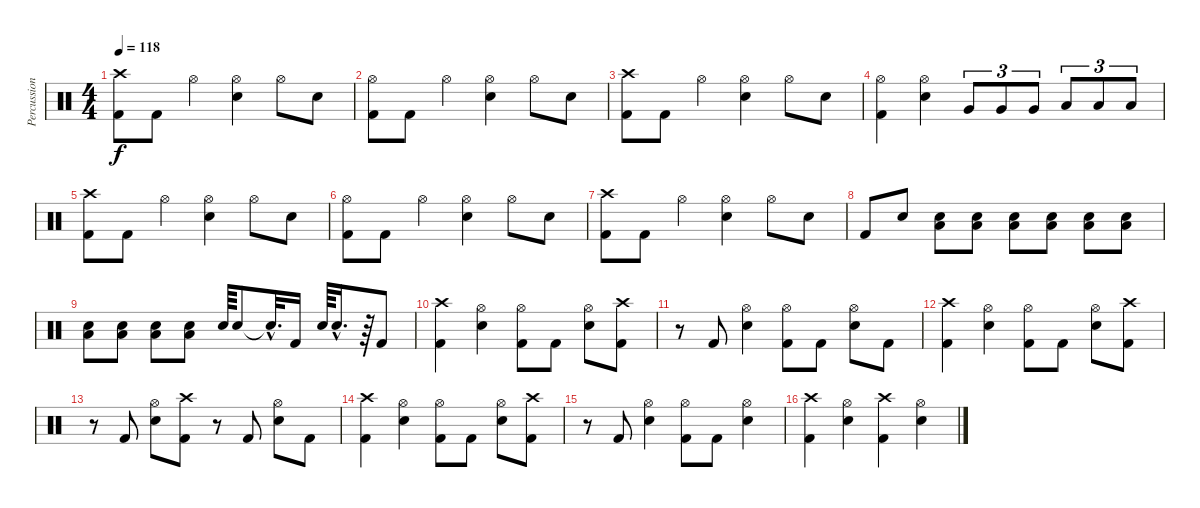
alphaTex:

\track ("Percussion" "Percussion") {instrument percussion}
\staff {score}
\articulation defaults
\ts (4 4)
\tempo 118
\clef neutral
\ks c
("Crash high (hit)" "Kick (hit) 2").8{dy f} "Kick (hit) 2".8 "Hi-Hat (open)".4 ("Hi-Hat (open)" "Snare (hit) 2").4 "Hi-Hat (open)".8 "Snare (hit) 2".8 |
("Hi-Hat (open)" "Kick (hit) 2").8 "Kick (hit) 2".8 "Hi-Hat (open)".4 ("Hi-Hat (open)" "Snare (hit) 2").4 "Hi-Hat (open)".8 "Snare (hit) 2".8 |
("Crash high (hit)" "Kick (hit) 2").8 "Kick (hit) 2".8 "Hi-Hat (open)".4 ("Hi-Hat (open)" "Snare (hit) 2").4 "Hi-Hat (open)".8 "Snare (hit) 2".8 |
("Hi-Hat (open)" "Kick (hit) 2").4 ("Hi-Hat (open)" "Snare (hit) 2").4 "Very Low Tom (hit)".8{tu (3 2)} "Very Low Tom (hit)".8{tu (3 2)} "Very Low Tom (hit)".8{tu (3 2)} "Low Floor Tom (hit)".8{tu (3 2)} "Low Floor Tom (hit)".8{tu (3 2)} "Low Floor Tom (hit)".8{tu (3 2)} |
("Crash high (hit)" "Kick (hit) 2").8 "Kick (hit) 2".8 "Hi-Hat (open)".4 ("Hi-Hat (open)" "Snare (hit) 2").4 "Hi-Hat (open)".8 "Snare (hit) 2".8 |
("Hi-Hat (open)" "Kick (hit) 2").8 "Kick (hit) 2".8 "Hi-Hat (open)".4 ("Hi-Hat (open)" "Snare (hit) 2").4 "Hi-Hat (open)".8 "Snare (hit) 2".8 |
("Crash high (hit)" "Kick (hit) 2").8 "Kick (hit) 2".8 "Hi-Hat (open)".4 ("Hi-Hat (open)" "Snare (hit) 2").4 "Hi-Hat (open)".8 "Snare (hit) 2".8 |
"Kick (hit) 2".8 "Snare (hit) 2".8 ("Snare (hit) 2" "Low Floor Tom (hit)").8 ("Snare (hit) 2" "Low Floor Tom (hit)").8 ("Snare (hit) 2" "Low Floor Tom (hit)").8 ("Snare (hit) 2" "Low Floor Tom (hit)").8 ("Snare (hit) 2" "Low Floor Tom (hit)").8 ("Snare (hit) 2" "Low Floor Tom (hit)").8 |
("Snare (hit) 2" "Low Floor Tom (hit)").8 ("Snare (hit) 2" "Low Floor Tom (hit)").8 ("Snare (hit) 2" "Low Floor Tom (hit)").8 ("Snare (hit) 2" "Low Floor Tom (hit)").8 "Snare (hit) 2".64 "Snare (hit) 2".8 "Snare (hit)"{hac t}.32{d} "Kick (hit) 2".16 "Snare (hit) 2".64 "Snare (hit) 2"{hac}.16{d} r.64 "Kick (hit) 2".8 |
("Crash high (hit)" "Kick (hit) 2").4 ("Hi-Hat (open)" "Snare (hit) 2").4 ("Hi-Hat (open)" "Kick (hit) 2").8 "Kick (hit) 2".8 ("Hi-Hat (open)" "Snare (hit) 2").8 ("Crash high (hit)" "Kick (hit) 2").8 |
r.8 "Kick (hit) 2".8 ("Hi-Hat (open)" "Snare (hit) 2").4 ("Hi-Hat (open)" "Kick (hit) 2").8 "Kick (hit) 2".8 ("Hi-Hat (open)" "Snare (hit) 2").8 "Kick (hit) 2".8 |
("Crash high (hit)" "Kick (hit) 2").4 ("Hi-Hat (open)" "Snare (hit) 2").4 ("Hi-Hat (open)" "Kick (hit) 2").8 "Kick (hit) 2".8 ("Hi-Hat (open)" "Snare (hit) 2").8 ("Crash high (hit)" "Kick (hit) 2").8 |
r.8 "Kick (hit) 2".8 ("Hi-Hat (open)" "Snare (hit) 2").8 ("Crash high (hit)" "Kick (hit) 2").8 r.8 "Kick (hit) 2".8 ("Hi-Hat (open)" "Snare (hit) 2").8 "Kick (hit) 2".8 |
("Crash high (hit)" "Kick (hit) 2").4 ("Hi-Hat (open)" "Snare (hit) 2").4 ("Hi-Hat (open)" "Kick (hit) 2").8 "Kick (hit) 2".8 ("Hi-Hat (open)" "Snare (hit) 2").8 ("Crash high (hit)" "Kick (hit) 2").8 |
r.8 "Kick (hit) 2".8 ("Hi-Hat (open)" "Snare (hit) 2").4 ("Hi-Hat (open)" "Kick (hit) 2").8 "Kick (hit) 2".8 ("Hi-Hat (open)" "Snare (hit) 2").4 |
("Crash high (hit)" "Kick (hit) 2").4 ("Hi-Hat (open)" "Snare (hit) 2").4 ("Crash high (hit)" "Kick (hit) 2").4 ("Hi-Hat (open)" "Snare (hit) 2").4
